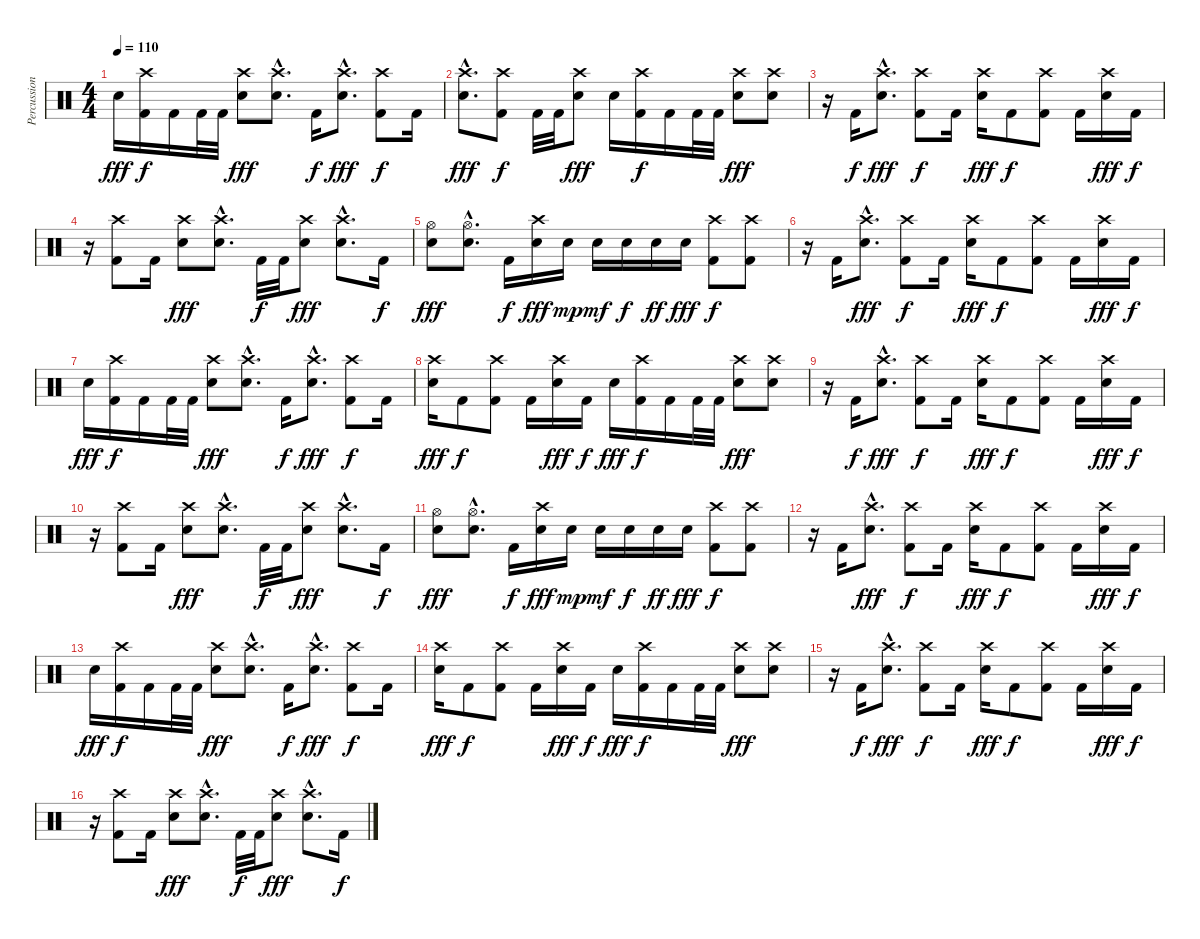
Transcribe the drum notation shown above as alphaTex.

\track ("Percussions" "Percussion") {instrument percussion}
\staff {score}
\articulation defaults
\ts (4 4)
\tempo 110
\clef neutral
\ks c "Snare (hit) 2".16{dy fff}
("Crash high (hit)" "Kick (hit) 2").16{dy f} "Kick (hit) 2".16 "Kick (hit) 2".32 "Kick (hit) 2".32 ("Crash high (hit)" "Snare (hit) 2").8{dy fff} ("Crash high (hit)"{hac} "Snare (hit) 2"{hac}).8{d} "Kick (hit) 2".16{dy f} ("Crash high (hit)"{hac} "Snare (hit) 2"{hac}).8{d dy fff} ("Crash high (hit)" "Kick (hit) 2").8{dy f} "Kick (hit) 2".16 |
("Crash high (hit)"{hac} "Snare (hit) 2"{hac}).8{d dy fff} ("Crash high (hit)" "Kick (hit) 2").8{dy f} "Kick (hit) 2".32 "Kick (hit) 2".32 ("Crash high (hit)" "Snare (hit) 2").8{dy fff} "Snare (hit) 2".16 ("Crash high (hit)" "Kick (hit) 2").16{dy f} "Kick (hit) 2".16 "Kick (hit) 2".32 "Kick (hit) 2".32 ("Crash high (hit)" "Snare (hit) 2").8{dy fff} ("Crash high (hit)" "Snare (hit) 2").8 |
r.16 "Kick (hit) 2".16{dy f} ("Crash high (hit)"{hac} "Snare (hit) 2"{hac}).8{d dy fff} ("Crash high (hit)" "Kick (hit) 2").8{dy f} "Kick (hit) 2".16 ("Crash high (hit)" "Snare (hit) 2").16{dy fff} "Kick (hit) 2".8{dy f} ("Crash high (hit)" "Kick (hit) 2").8 "Kick (hit) 2".16 ("Crash high (hit)" "Snare (hit) 2").16{dy fff} "Kick (hit) 2".16{dy f} |
r.16 ("Crash high (hit)" "Kick (hit) 2").8 "Kick (hit) 2".16 ("Crash high (hit)" "Snare (hit) 2").8{dy fff} ("Crash high (hit)"{hac} "Snare (hit) 2"{hac}).8{d} "Kick (hit) 2".32{dy f} "Kick (hit) 2".32 ("Crash high (hit)" "Snare (hit) 2").8{dy fff} ("Crash high (hit)"{hac} "Snare (hit) 2"{hac}).8{d} "Kick (hit) 2".16{dy f} |
("Hi-Hat (open)" "Snare (hit) 2").8{dy fff} ("Hi-Hat (open)"{hac} "Snare (hit) 2"{hac}).8{d} "Kick (hit) 2".16{dy f} ("Crash high (hit)" "Snare (hit) 2").16{dy fff} "Snare (hit) 2".16{dy mp} "Snare (hit) 2".16{dy mf} "Snare (hit) 2".16{dy f} "Snare (hit) 2".16{dy ff} "Snare (hit) 2".16{dy fff} ("Crash high (hit)" "Kick (hit) 2").8{dy f} ("Crash high (hit)" "Kick (hit) 2").8 |
r.16 "Kick (hit) 2".16 ("Crash high (hit)"{hac} "Snare (hit) 2"{hac}).8{d dy fff} ("Crash high (hit)" "Kick (hit) 2").8{dy f} "Kick (hit) 2".16 ("Crash high (hit)" "Snare (hit) 2").16{dy fff} "Kick (hit) 2".8{dy f} ("Crash high (hit)" "Kick (hit) 2").8 "Kick (hit) 2".16 ("Crash high (hit)" "Snare (hit) 2").16{dy fff} "Kick (hit) 2".16{dy f} |
"Snare (hit) 2".16{dy fff} ("Crash high (hit)" "Kick (hit) 2").16{dy f} "Kick (hit) 2".16 "Kick (hit) 2".32 "Kick (hit) 2".32 ("Crash high (hit)" "Snare (hit) 2").8{dy fff} ("Crash high (hit)"{hac} "Snare (hit) 2"{hac}).8{d} "Kick (hit) 2".16{dy f} ("Crash high (hit)"{hac} "Snare (hit) 2"{hac}).8{d dy fff} ("Crash high (hit)" "Kick (hit) 2").8{dy f} "Kick (hit) 2".16 |
("Crash high (hit)" "Snare (hit) 2").16{dy fff} "Kick (hit) 2".8{dy f} ("Crash high (hit)" "Kick (hit) 2").8 "Kick (hit) 2".16 ("Crash high (hit)" "Snare (hit) 2").16{dy fff} "Kick (hit) 2".16{dy f} "Snare (hit) 2".16{dy fff} ("Crash high (hit)" "Kick (hit) 2").16{dy f} "Kick (hit) 2".16 "Kick (hit) 2".32 "Kick (hit) 2".32 ("Crash high (hit)" "Snare (hit) 2").8{dy fff} ("Crash high (hit)" "Snare (hit) 2").8 |
r.16 "Kick (hit) 2".16{dy f} ("Crash high (hit)"{hac} "Snare (hit) 2"{hac}).8{d dy fff} ("Crash high (hit)" "Kick (hit) 2").8{dy f} "Kick (hit) 2".16 ("Crash high (hit)" "Snare (hit) 2").16{dy fff} "Kick (hit) 2".8{dy f} ("Crash high (hit)" "Kick (hit) 2").8 "Kick (hit) 2".16 ("Crash high (hit)" "Snare (hit) 2").16{dy fff} "Kick (hit) 2".16{dy f} |
r.16 ("Crash high (hit)" "Kick (hit) 2").8 "Kick (hit) 2".16 ("Crash high (hit)" "Snare (hit) 2").8{dy fff} ("Crash high (hit)"{hac} "Snare (hit) 2"{hac}).8{d} "Kick (hit) 2".32{dy f} "Kick (hit) 2".32 ("Crash high (hit)" "Snare (hit) 2").8{dy fff} ("Crash high (hit)"{hac} "Snare (hit) 2"{hac}).8{d} "Kick (hit) 2".16{dy f} |
("Hi-Hat (open)" "Snare (hit) 2").8{dy fff} ("Hi-Hat (open)"{hac} "Snare (hit) 2"{hac}).8{d} "Kick (hit) 2".16{dy f} ("Crash high (hit)" "Snare (hit) 2").16{dy fff} "Snare (hit) 2".16{dy mp} "Snare (hit) 2".16{dy mf} "Snare (hit) 2".16{dy f} "Snare (hit) 2".16{dy ff} "Snare (hit) 2".16{dy fff} ("Crash high (hit)" "Kick (hit) 2").8{dy f} ("Crash high (hit)" "Kick (hit) 2").8 |
r.16 "Kick (hit) 2".16 ("Crash high (hit)"{hac} "Snare (hit) 2"{hac}).8{d dy fff} ("Crash high (hit)" "Kick (hit) 2").8{dy f} "Kick (hit) 2".16 ("Crash high (hit)" "Snare (hit) 2").16{dy fff} "Kick (hit) 2".8{dy f} ("Crash high (hit)" "Kick (hit) 2").8 "Kick (hit) 2".16 ("Crash high (hit)" "Snare (hit) 2").16{dy fff} "Kick (hit) 2".16{dy f} |
"Snare (hit) 2".16{dy fff} ("Crash high (hit)" "Kick (hit) 2").16{dy f} "Kick (hit) 2".16 "Kick (hit) 2".32 "Kick (hit) 2".32 ("Crash high (hit)" "Snare (hit) 2").8{dy fff} ("Crash high (hit)"{hac} "Snare (hit) 2"{hac}).8{d} "Kick (hit) 2".16{dy f} ("Crash high (hit)"{hac} "Snare (hit) 2"{hac}).8{d dy fff} ("Crash high (hit)" "Kick (hit) 2").8{dy f} "Kick (hit) 2".16 |
("Crash high (hit)" "Snare (hit) 2").16{dy fff} "Kick (hit) 2".8{dy f} ("Crash high (hit)" "Kick (hit) 2").8 "Kick (hit) 2".16 ("Crash high (hit)" "Snare (hit) 2").16{dy fff} "Kick (hit) 2".16{dy f} "Snare (hit) 2".16{dy fff} ("Crash high (hit)" "Kick (hit) 2").16{dy f} "Kick (hit) 2".16 "Kick (hit) 2".32 "Kick (hit) 2".32 ("Crash high (hit)" "Snare (hit) 2").8{dy fff} ("Crash high (hit)" "Snare (hit) 2").8 |
r.16 "Kick (hit) 2".16{dy f} ("Crash high (hit)"{hac} "Snare (hit) 2"{hac}).8{d dy fff} ("Crash high (hit)" "Kick (hit) 2").8{dy f} "Kick (hit) 2".16 ("Crash high (hit)" "Snare (hit) 2").16{dy fff} "Kick (hit) 2".8{dy f} ("Crash high (hit)" "Kick (hit) 2").8 "Kick (hit) 2".16 ("Crash high (hit)" "Snare (hit) 2").16{dy fff} "Kick (hit) 2".16{dy f} |
r.16 ("Crash high (hit)" "Kick (hit) 2").8 "Kick (hit) 2".16 ("Crash high (hit)" "Snare (hit) 2").8{dy fff} ("Crash high (hit)"{hac} "Snare (hit) 2"{hac}).8{d} "Kick (hit) 2".32{dy f} "Kick (hit) 2".32 ("Crash high (hit)" "Snare (hit) 2").8{dy fff} ("Crash high (hit)"{hac} "Snare (hit) 2"{hac}).8{d} "Kick (hit) 2".16{dy f}
